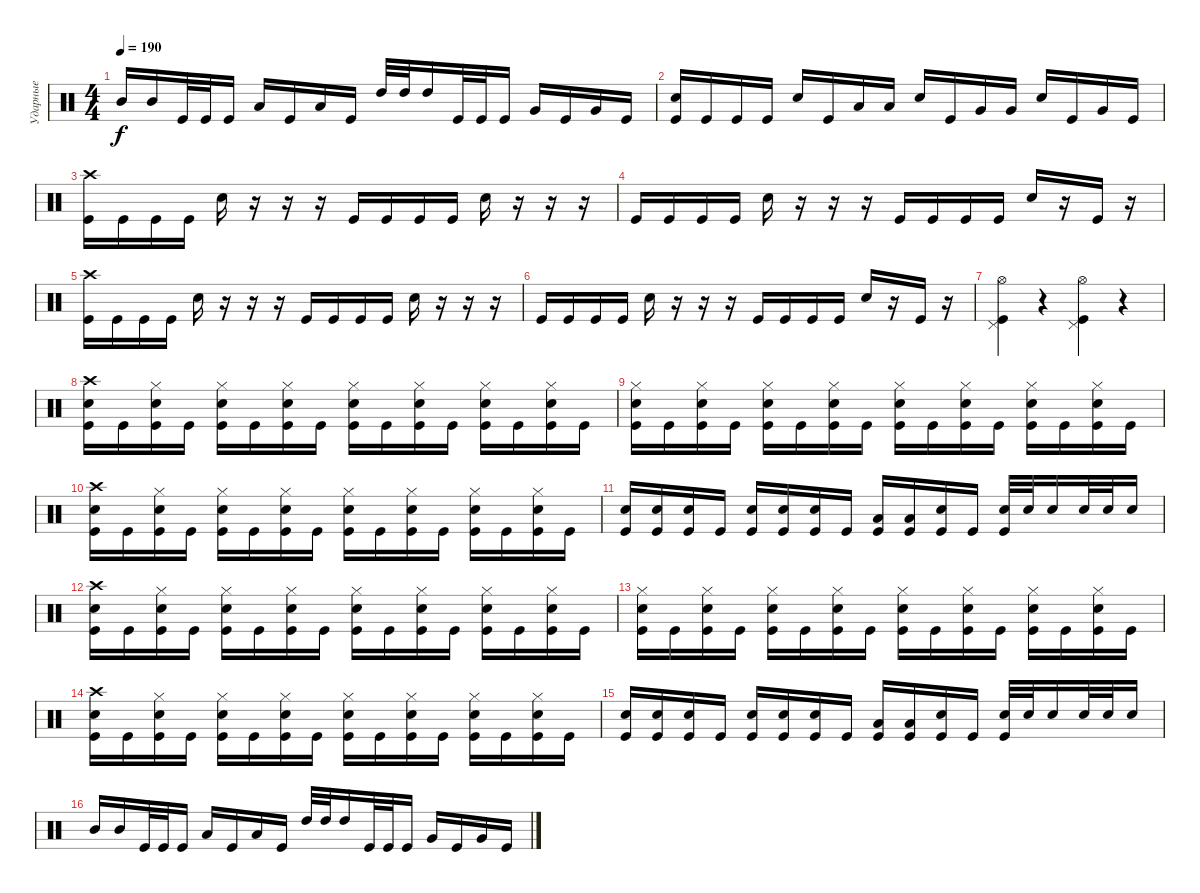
\track ("Ударные" "Ударные") {instrument percussion}
\staff {score}
\articulation defaults
\ts (4 4)
\tempo 190
\clef neutral
\ks c "Mid Tom (hit)".16{dy f} "Mid Tom (hit)".16 "Kick (hit)".32 "Kick (hit)".32 "Kick (hit)".16 "Low Tom (hit)".16 "Kick (hit)".16 "Low Tom (hit)".16 "Kick (hit)".16 "High Tom (hit)".32 "High Tom (hit)".32 "High Tom (hit)".16 "Kick (hit)".32 "Kick (hit)".32 "Kick (hit)".16 "Very Low Tom (hit)".16 "Kick (hit)".16 "Very Low Tom (hit)".16 "Kick (hit)".16
|
("Electric Snare (hit)" "Kick (hit)").16 "Kick (hit)".16 "Kick (hit)".16 "Kick (hit)".16 "Electric Snare (hit)".16 "Kick (hit)".16 "Low Tom (hit)".16 "Low Tom (hit)".16 "Electric Snare (hit)".16 "Kick (hit)".16 "Very Low Tom (hit)".16 "Very Low Tom (hit)".16 "Electric Snare (hit)".16 "Kick (hit)".16 "Very Low Tom (hit)".16 "Kick (hit)".16 |
("Crash high (hit)" "Kick (hit)").16 "Kick (hit)".16 "Kick (hit)".16 "Kick (hit)".16 "Electric Snare (hit)".16 r.16 r.16 r.16 "Kick (hit)".16 "Kick (hit)".16 "Kick (hit)".16 "Kick (hit)".16 "Electric Snare (hit)".16 r.16 r.16 r.16 |
"Kick (hit)".16 "Kick (hit)".16 "Kick (hit)".16 "Kick (hit)".16 "Electric Snare (hit)".16 r.16 r.16 r.16 "Kick (hit)".16 "Kick (hit)".16 "Kick (hit)".16 "Kick (hit)".16 "Electric Snare (hit)".16 r.16 "Kick (hit)".16 r.16 |
("Crash high (hit)" "Kick (hit)").16 "Kick (hit)".16 "Kick (hit)".16 "Kick (hit)".16 "Electric Snare (hit)".16 r.16 r.16 r.16 "Kick (hit)".16 "Kick (hit)".16 "Kick (hit)".16 "Kick (hit)".16 "Electric Snare (hit)".16 r.16 r.16 r.16 |
"Kick (hit)".16 "Kick (hit)".16 "Kick (hit)".16 "Kick (hit)".16 "Electric Snare (hit)".16 r.16 r.16 r.16 "Kick (hit)".16 "Kick (hit)".16 "Kick (hit)".16 "Kick (hit)".16 "Electric Snare (hit)".16 r.16 "Kick (hit)".16 r.16 |
("Pedal Hi-Hat (hit)" "Hi-Hat (open)" "Kick (hit)").4 r.4 ("Pedal Hi-Hat (hit)" "Hi-Hat (open)" "Kick (hit)").4 r.4 |
("Crash high (hit)" "Electric Snare (hit)" "Kick (hit)").16 "Kick (hit)".16 ("Hi-Hat (closed)" "Electric Snare (hit)" "Kick (hit)").16 "Kick (hit)".16 ("Hi-Hat (closed)" "Electric Snare (hit)" "Kick (hit)").16 "Kick (hit)".16 ("Hi-Hat (closed)" "Electric Snare (hit)" "Kick (hit)").16 "Kick (hit)".16 ("Hi-Hat (closed)" "Electric Snare (hit)" "Kick (hit)").16 "Kick (hit)".16 ("Hi-Hat (closed)" "Electric Snare (hit)" "Kick (hit)").16 "Kick (hit)".16 ("Hi-Hat (closed)" "Electric Snare (hit)" "Kick (hit)").16 "Kick (hit)".16 ("Hi-Hat (closed)" "Electric Snare (hit)" "Kick (hit)").16 "Kick (hit)".16 |
("Hi-Hat (closed)" "Electric Snare (hit)" "Kick (hit)").16 "Kick (hit)".16 ("Hi-Hat (closed)" "Electric Snare (hit)" "Kick (hit)").16 "Kick (hit)".16 ("Hi-Hat (closed)" "Electric Snare (hit)" "Kick (hit)").16 "Kick (hit)".16 ("Hi-Hat (closed)" "Electric Snare (hit)" "Kick (hit)").16 "Kick (hit)".16 ("Hi-Hat (closed)" "Electric Snare (hit)" "Kick (hit)").16 "Kick (hit)".16 ("Hi-Hat (closed)" "Electric Snare (hit)" "Kick (hit)").16 "Kick (hit)".16 ("Hi-Hat (closed)" "Electric Snare (hit)" "Kick (hit)").16 "Kick (hit)".16 ("Hi-Hat (closed)" "Electric Snare (hit)" "Kick (hit)").16 "Kick (hit)".16 |
("Crash high (hit)" "Electric Snare (hit)" "Kick (hit)").16 "Kick (hit)".16 ("Hi-Hat (closed)" "Electric Snare (hit)" "Kick (hit)").16 "Kick (hit)".16 ("Hi-Hat (closed)" "Electric Snare (hit)" "Kick (hit)").16 "Kick (hit)".16 ("Hi-Hat (closed)" "Electric Snare (hit)" "Kick (hit)").16 "Kick (hit)".16 ("Hi-Hat (closed)" "Electric Snare (hit)" "Kick (hit)").16 "Kick (hit)".16 ("Hi-Hat (closed)" "Electric Snare (hit)" "Kick (hit)").16 "Kick (hit)".16 ("Hi-Hat (closed)" "Electric Snare (hit)" "Kick (hit)").16 "Kick (hit)".16 ("Hi-Hat (closed)" "Electric Snare (hit)" "Kick (hit)").16 "Kick (hit)".16 |
("Electric Snare (hit)" "Kick (hit)").16 ("Electric Snare (hit)" "Kick (hit)").16 ("Electric Snare (hit)" "Kick (hit)").16 "Kick (hit)".16 ("Electric Snare (hit)" "Kick (hit)").16 ("Electric Snare (hit)" "Kick (hit)").16 ("Electric Snare (hit)" "Kick (hit)").16 "Kick (hit)".16 ("Low Tom (hit)" "Kick (hit)").16 ("Low Tom (hit)" "Kick (hit)").16 ("Electric Snare (hit)" "Kick (hit)").16 "Kick (hit)".16 ("Electric Snare (hit)" "Kick (hit)").32 "Electric Snare (hit)".32 "Electric Snare (hit)".16 "Electric Snare (hit)".32 "Electric Snare (hit)".32 "Electric Snare (hit)".16 |
("Crash high (hit)" "Electric Snare (hit)" "Kick (hit)").16 "Kick (hit)".16 ("Hi-Hat (closed)" "Electric Snare (hit)" "Kick (hit)").16 "Kick (hit)".16 ("Hi-Hat (closed)" "Electric Snare (hit)" "Kick (hit)").16 "Kick (hit)".16 ("Hi-Hat (closed)" "Electric Snare (hit)" "Kick (hit)").16 "Kick (hit)".16 ("Hi-Hat (closed)" "Electric Snare (hit)" "Kick (hit)").16 "Kick (hit)".16 ("Hi-Hat (closed)" "Electric Snare (hit)" "Kick (hit)").16 "Kick (hit)".16 ("Hi-Hat (closed)" "Electric Snare (hit)" "Kick (hit)").16 "Kick (hit)".16 ("Hi-Hat (closed)" "Electric Snare (hit)" "Kick (hit)").16 "Kick (hit)".16 |
("Hi-Hat (closed)" "Electric Snare (hit)" "Kick (hit)").16 "Kick (hit)".16 ("Hi-Hat (closed)" "Electric Snare (hit)" "Kick (hit)").16 "Kick (hit)".16 ("Hi-Hat (closed)" "Electric Snare (hit)" "Kick (hit)").16 "Kick (hit)".16 ("Hi-Hat (closed)" "Electric Snare (hit)" "Kick (hit)").16 "Kick (hit)".16 ("Hi-Hat (closed)" "Electric Snare (hit)" "Kick (hit)").16 "Kick (hit)".16 ("Hi-Hat (closed)" "Electric Snare (hit)" "Kick (hit)").16 "Kick (hit)".16 ("Hi-Hat (closed)" "Electric Snare (hit)" "Kick (hit)").16 "Kick (hit)".16 ("Hi-Hat (closed)" "Electric Snare (hit)" "Kick (hit)").16 "Kick (hit)".16 |
("Crash high (hit)" "Electric Snare (hit)" "Kick (hit)").16 "Kick (hit)".16 ("Hi-Hat (closed)" "Electric Snare (hit)" "Kick (hit)").16 "Kick (hit)".16 ("Hi-Hat (closed)" "Electric Snare (hit)" "Kick (hit)").16 "Kick (hit)".16 ("Hi-Hat (closed)" "Electric Snare (hit)" "Kick (hit)").16 "Kick (hit)".16 ("Hi-Hat (closed)" "Electric Snare (hit)" "Kick (hit)").16 "Kick (hit)".16 ("Hi-Hat (closed)" "Electric Snare (hit)" "Kick (hit)").16 "Kick (hit)".16 ("Hi-Hat (closed)" "Electric Snare (hit)" "Kick (hit)").16 "Kick (hit)".16 ("Hi-Hat (closed)" "Electric Snare (hit)" "Kick (hit)").16 "Kick (hit)".16 |
("Electric Snare (hit)" "Kick (hit)").16 ("Electric Snare (hit)" "Kick (hit)").16 ("Electric Snare (hit)" "Kick (hit)").16 "Kick (hit)".16 ("Electric Snare (hit)" "Kick (hit)").16 ("Electric Snare (hit)" "Kick (hit)").16 ("Electric Snare (hit)" "Kick (hit)").16 "Kick (hit)".16 ("Low Tom (hit)" "Kick (hit)").16 ("Low Tom (hit)" "Kick (hit)").16 ("Electric Snare (hit)" "Kick (hit)").16 "Kick (hit)".16 ("Electric Snare (hit)" "Kick (hit)").32 "Electric Snare (hit)".32 "Electric Snare (hit)".16 "Electric Snare (hit)".32 "Electric Snare (hit)".32 "Electric Snare (hit)".16 |
"Mid Tom (hit)".16 "Mid Tom (hit)".16 "Kick (hit)".32 "Kick (hit)".32 "Kick (hit)".16 "Low Tom (hit)".16 "Kick (hit)".16 "Low Tom (hit)".16 "Kick (hit)".16 "High Tom (hit)".32 "High Tom (hit)".32 "High Tom (hit)".16 "Kick (hit)".32 "Kick (hit)".32 "Kick (hit)".16 "Very Low Tom (hit)".16 "Kick (hit)".16 "Very Low Tom (hit)".16 "Kick (hit)".16
